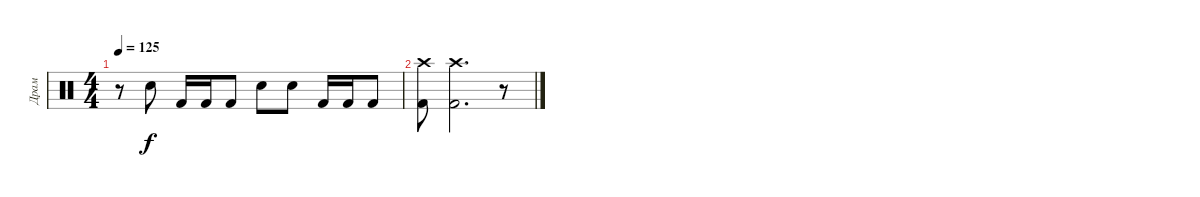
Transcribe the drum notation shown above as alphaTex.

\track ("Драм" "Драм") {instrument percussion}
\staff {score}
\articulation defaults
\ts (4 4)
\tempo 125
\clef neutral
\ks c
r.8{dy f} "Snare (hit) 2".8 "Kick (hit) 2".16 "Kick (hit) 2".16 "Kick (hit) 2".8 "Snare (hit) 2".8 "Snare (hit) 2".8 "Kick (hit) 2".16 "Kick (hit) 2".16 "Kick (hit) 2".8 |
("Crash high (hit)" "Kick (hit) 2").8 ("Crash high (hit)" "Kick (hit) 2").2{d} r.8
